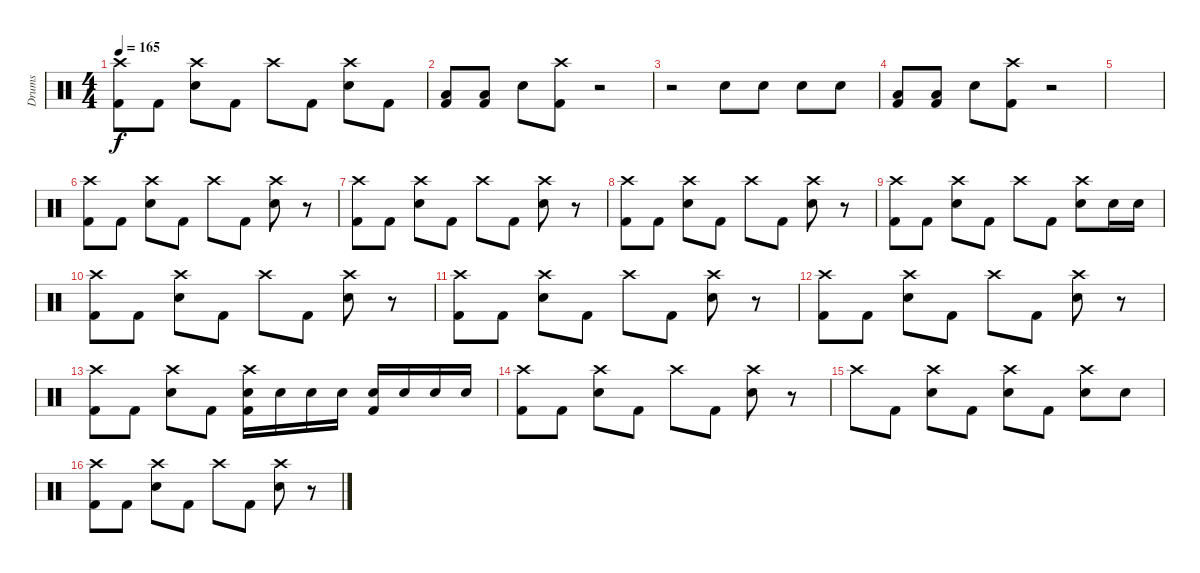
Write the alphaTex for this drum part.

\track ("Drums" "Drums") {instrument percussion}
\staff {score}
\articulation defaults
\ts (4 4)
\tempo 165
\clef neutral
\ks c
("Crash high (hit)" "Kick (hit) 2").8{dy f} "Kick (hit) 2".8 ("Crash high (hit)" "Snare (hit) 2").8 "Kick (hit) 2".8 "Crash high (hit)".8 "Kick (hit) 2".8 ("Crash high (hit)" "Snare (hit) 2").8 "Kick (hit) 2".8 |
("Low Floor Tom (hit)" "Kick (hit) 2").8 ("Low Floor Tom (hit)" "Kick (hit) 2").8 "Snare (hit) 2".8 ("Crash high (hit)" "Kick (hit) 2").8 r.2 |
r.2 "Snare (hit) 2".8 "Snare (hit) 2".8 "Snare (hit) 2".8 "Snare (hit) 2".8 |
("Low Floor Tom (hit)" "Kick (hit) 2").8 ("Low Floor Tom (hit)" "Kick (hit) 2").8 "Snare (hit) 2".8 ("Crash high (hit)" "Kick (hit) 2").8 r.2 |
|
("Crash high (hit)" "Kick (hit) 2").8 "Kick (hit) 2".8 ("Crash high (hit)" "Snare (hit) 2").8 "Kick (hit) 2".8 "Crash high (hit)".8 "Kick (hit) 2".8 ("Crash high (hit)" "Snare (hit) 2").8 r.8 |
("Crash high (hit)" "Kick (hit) 2").8 "Kick (hit) 2".8 ("Crash high (hit)" "Snare (hit) 2").8 "Kick (hit) 2".8 "Crash high (hit)".8 "Kick (hit) 2".8 ("Crash high (hit)" "Snare (hit) 2").8 r.8 |
("Crash high (hit)" "Kick (hit) 2").8 "Kick (hit) 2".8 ("Crash high (hit)" "Snare (hit) 2").8 "Kick (hit) 2".8 "Crash high (hit)".8 "Kick (hit) 2".8 ("Crash high (hit)" "Snare (hit) 2").8 r.8 |
("Crash high (hit)" "Kick (hit) 2").8 "Kick (hit) 2".8 ("Crash high (hit)" "Snare (hit) 2").8 "Kick (hit) 2".8 "Crash high (hit)".8 "Kick (hit) 2".8 ("Crash high (hit)" "Snare (hit) 2").8 "Snare (hit) 2".16 "Snare (hit) 2".16 |
("Crash high (hit)" "Kick (hit) 2").8 "Kick (hit) 2".8 ("Crash high (hit)" "Snare (hit) 2").8 "Kick (hit) 2".8 "Crash high (hit)".8 "Kick (hit) 2".8 ("Crash high (hit)" "Snare (hit) 2").8 r.8 |
("Crash high (hit)" "Kick (hit) 2").8 "Kick (hit) 2".8 ("Crash high (hit)" "Snare (hit) 2").8 "Kick (hit) 2".8 "Crash high (hit)".8 "Kick (hit) 2".8 ("Crash high (hit)" "Snare (hit) 2").8 r.8 |
("Crash high (hit)" "Kick (hit) 2").8 "Kick (hit) 2".8 ("Crash high (hit)" "Snare (hit) 2").8 "Kick (hit) 2".8 "Crash high (hit)".8 "Kick (hit) 2".8 ("Crash high (hit)" "Snare (hit) 2").8 r.8 |
("Crash high (hit)" "Kick (hit) 2").8 "Kick (hit) 2".8 ("Crash high (hit)" "Snare (hit) 2").8 "Kick (hit) 2".8 ("Crash high (hit)" "Snare (hit) 2" "Kick (hit) 2").16 "Snare (hit) 2".16 "Snare (hit) 2".16 "Snare (hit) 2".16 ("Snare (hit) 2" "Kick (hit) 2").16 "Snare (hit) 2".16 "Snare (hit) 2".16 "Snare (hit) 2".16 |
("Crash high (hit)" "Kick (hit) 2").8 "Kick (hit) 2".8 ("Crash high (hit)" "Snare (hit) 2").8 "Kick (hit) 2".8 "Crash high (hit)".8 "Kick (hit) 2".8 ("Crash high (hit)" "Snare (hit) 2").8 r.8 |
"Crash high (hit)".8 "Kick (hit) 2".8 ("Crash high (hit)" "Snare (hit) 2").8 "Kick (hit) 2".8 ("Crash high (hit)" "Snare (hit) 2").8 "Kick (hit) 2".8 ("Crash high (hit)" "Snare (hit) 2").8 "Snare (hit) 2".8 |
("Crash high (hit)" "Kick (hit) 2").8 "Kick (hit) 2".8 ("Crash high (hit)" "Snare (hit) 2").8 "Kick (hit) 2".8 "Crash high (hit)".8 "Kick (hit) 2".8 ("Crash high (hit)" "Snare (hit) 2").8 r.8
